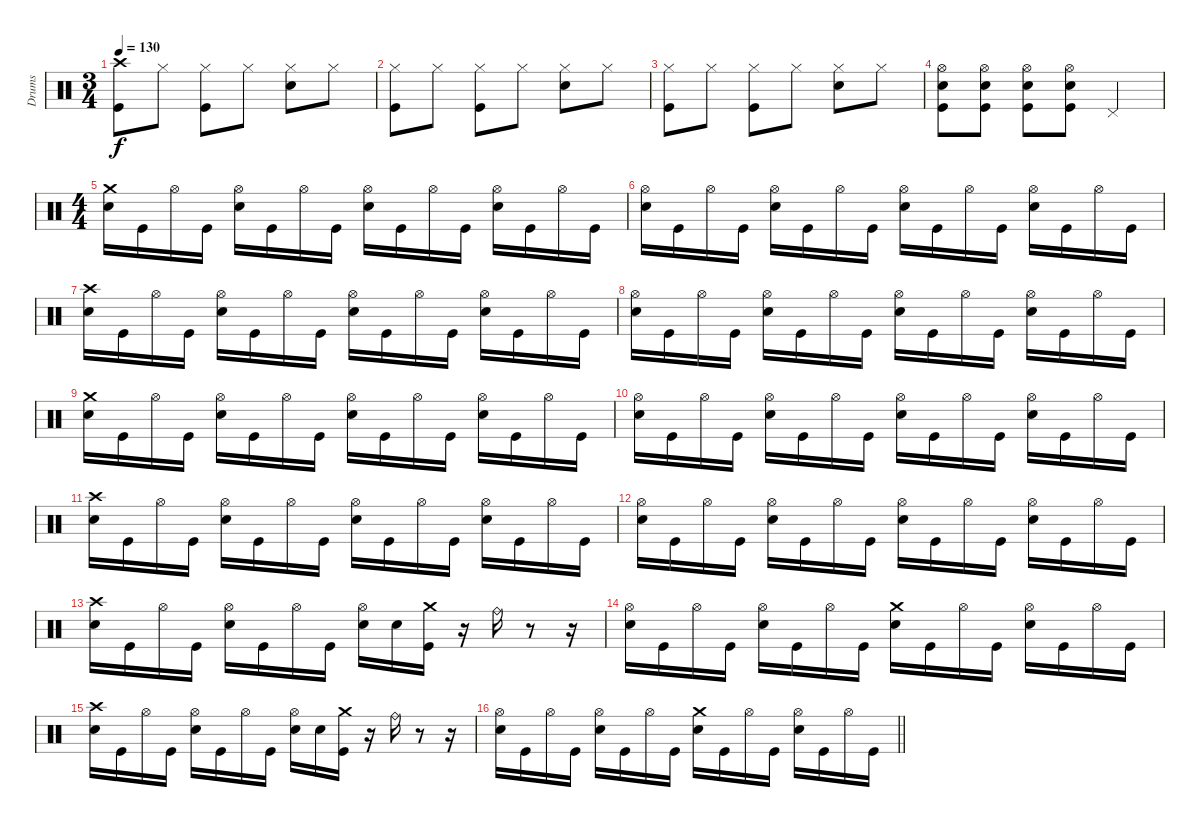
\track ("Drums" "Drums") {instrument percussion}
\staff {score}
\articulation defaults
\ts (3 4)
\tempo 130
\clef neutral
\ks c
("Crash high (hit)" "Kick (hit)").8{dy f} "Hi-Hat (closed)".8 ("Hi-Hat (closed)" "Kick (hit)").8 "Hi-Hat (closed)".8 ("Hi-Hat (closed)" "Snare (hit) 2").8 "Hi-Hat (closed)".8 |
("Hi-Hat (closed)" "Kick (hit)").8 "Hi-Hat (closed)".8 ("Hi-Hat (closed)" "Kick (hit)").8 "Hi-Hat (closed)".8 ("Hi-Hat (closed)" "Snare (hit) 2").8 "Hi-Hat (closed)".8 |
("Hi-Hat (closed)" "Kick (hit)").8 "Hi-Hat (closed)".8 ("Hi-Hat (closed)" "Kick (hit)").8 "Hi-Hat (closed)".8 ("Hi-Hat (closed)" "Snare (hit) 2").8 "Hi-Hat (closed)".8 |
("Hi-Hat (open)" "Snare (hit) 2" "Kick (hit)").8 ("Hi-Hat (open)" "Snare (hit) 2" "Kick (hit)").8 ("Hi-Hat (open)" "Snare (hit) 2" "Kick (hit)").8 ("Hi-Hat (open)" "Snare (hit) 2" "Kick (hit)").8 "Pedal Hi-Hat (hit)".4 |
\ts (4 4)
("Crash medium (hit)" "Snare (hit) 2").16 "Kick (hit)".16 "Hi-Hat (open)".16 "Kick (hit)".16 ("Hi-Hat (open)" "Snare (hit) 2").16 "Kick (hit)".16 "Hi-Hat (open)".16 "Kick (hit)".16 ("Hi-Hat (open)" "Snare (hit) 2").16 "Kick (hit)".16 "Hi-Hat (open)".16 "Kick (hit)".16 ("Hi-Hat (open)" "Snare (hit) 2").16 "Kick (hit)".16 "Hi-Hat (open)".16 "Kick (hit)".16 |
("Hi-Hat (open)" "Snare (hit) 2").16 "Kick (hit)".16 "Hi-Hat (open)".16 "Kick (hit)".16 ("Hi-Hat (open)" "Snare (hit) 2").16 "Kick (hit)".16 "Hi-Hat (open)".16 "Kick (hit)".16 ("Hi-Hat (open)" "Snare (hit) 2").16 "Kick (hit)".16 "Hi-Hat (open)".16 "Kick (hit)".16 ("Hi-Hat (open)" "Snare (hit) 2").16 "Kick (hit)".16 "Hi-Hat (open)".16 "Kick (hit)".16 |
("Crash high (hit)" "Snare (hit) 2").16 "Kick (hit)".16 "Hi-Hat (open)".16 "Kick (hit)".16 ("Hi-Hat (open)" "Snare (hit) 2").16 "Kick (hit)".16 "Hi-Hat (open)".16 "Kick (hit)".16 ("Hi-Hat (open)" "Snare (hit) 2").16 "Kick (hit)".16 "Hi-Hat (open)".16 "Kick (hit)".16 ("Hi-Hat (open)" "Snare (hit) 2").16 "Kick (hit)".16 "Hi-Hat (open)".16 "Kick (hit)".16 |
("Hi-Hat (open)" "Snare (hit) 2").16 "Kick (hit)".16 "Hi-Hat (open)".16 "Kick (hit)".16 ("Hi-Hat (open)" "Snare (hit) 2").16 "Kick (hit)".16 "Hi-Hat (open)".16 "Kick (hit)".16 ("Hi-Hat (open)" "Snare (hit) 2").16 "Kick (hit)".16 "Hi-Hat (open)".16 "Kick (hit)".16 ("Hi-Hat (open)" "Snare (hit) 2").16 "Kick (hit)".16 "Hi-Hat (open)".16 "Kick (hit)".16 |
("Crash medium (hit)" "Snare (hit) 2").16 "Kick (hit)".16 "Hi-Hat (open)".16 "Kick (hit)".16 ("Hi-Hat (open)" "Snare (hit) 2").16 "Kick (hit)".16 "Hi-Hat (open)".16 "Kick (hit)".16 ("Hi-Hat (open)" "Snare (hit) 2").16 "Kick (hit)".16 "Hi-Hat (open)".16 "Kick (hit)".16 ("Hi-Hat (open)" "Snare (hit) 2").16 "Kick (hit)".16 "Hi-Hat (open)".16 "Kick (hit)".16 |
("Hi-Hat (open)" "Snare (hit) 2").16 "Kick (hit)".16 "Hi-Hat (open)".16 "Kick (hit)".16 ("Hi-Hat (open)" "Snare (hit) 2").16 "Kick (hit)".16 "Hi-Hat (open)".16 "Kick (hit)".16 ("Hi-Hat (open)" "Snare (hit) 2").16 "Kick (hit)".16 "Hi-Hat (open)".16 "Kick (hit)".16 ("Hi-Hat (open)" "Snare (hit) 2").16 "Kick (hit)".16 "Hi-Hat (open)".16 "Kick (hit)".16 |
("Crash high (hit)" "Snare (hit) 2").16 "Kick (hit)".16 "Hi-Hat (open)".16 "Kick (hit)".16 ("Hi-Hat (open)" "Snare (hit) 2").16 "Kick (hit)".16 "Hi-Hat (open)".16 "Kick (hit)".16 ("Hi-Hat (open)" "Snare (hit) 2").16 "Kick (hit)".16 "Hi-Hat (open)".16 "Kick (hit)".16 ("Hi-Hat (open)" "Snare (hit) 2").16 "Kick (hit)".16 "Hi-Hat (open)".16 "Kick (hit)".16 |
("Hi-Hat (open)" "Snare (hit) 2").16 "Kick (hit)".16 "Hi-Hat (open)".16 "Kick (hit)".16 ("Hi-Hat (open)" "Snare (hit) 2").16 "Kick (hit)".16 "Hi-Hat (open)".16 "Kick (hit)".16 ("Hi-Hat (open)" "Snare (hit) 2").16 "Kick (hit)".16 "Hi-Hat (open)".16 "Kick (hit)".16 ("Hi-Hat (open)" "Snare (hit) 2").16 "Kick (hit)".16 "Hi-Hat (open)".16 "Kick (hit)".16 |
("Crash high (hit)" "Snare (hit) 2").16 "Kick (hit)".16 "Hi-Hat (open)".16 "Kick (hit)".16 ("Hi-Hat (open)" "Snare (hit) 2").16 "Kick (hit)".16 "Hi-Hat (open)".16 "Kick (hit)".16 ("Hi-Hat (open)" "Snare (hit) 2").16 "Snare (hit) 2".16 ("Crash medium (hit)" "Kick (hit)").16 r.16 "Ride (bell)".16 r.8 r.16 |
("Hi-Hat (open)" "Snare (hit) 2").16 "Kick (hit)".16 "Hi-Hat (open)".16 "Kick (hit)".16 ("Hi-Hat (open)" "Snare (hit) 2").16 "Kick (hit)".16 "Hi-Hat (open)".16 "Kick (hit)".16 ("Crash medium (hit)" "Snare (hit) 2").16 "Kick (hit)".16 "Hi-Hat (open)".16 "Kick (hit)".16 ("Hi-Hat (open)" "Snare (hit) 2").16 "Kick (hit)".16 "Hi-Hat (open)".16 "Kick (hit)".16 |
("Crash high (hit)" "Snare (hit) 2").16 "Kick (hit)".16 "Hi-Hat (open)".16 "Kick (hit)".16 ("Hi-Hat (open)" "Snare (hit) 2").16 "Kick (hit)".16 "Hi-Hat (open)".16 "Kick (hit)".16 ("Hi-Hat (open)" "Snare (hit) 2").16 "Snare (hit) 2".16 ("Crash medium (hit)" "Kick (hit)").16 r.16 "Ride (bell)".16 r.8 r.16 |
\barLineRight lightlight
("Hi-Hat (open)" "Snare (hit) 2").16 "Kick (hit)".16 "Hi-Hat (open)".16 "Kick (hit)".16 ("Hi-Hat (open)" "Snare (hit) 2").16 "Kick (hit)".16 "Hi-Hat (open)".16 "Kick (hit)".16 ("Crash medium (hit)" "Snare (hit) 2").16 "Kick (hit)".16 "Hi-Hat (open)".16 "Kick (hit)".16 ("Hi-Hat (open)" "Snare (hit) 2").16 "Kick (hit)".16 "Hi-Hat (open)".16 "Kick (hit)".16
